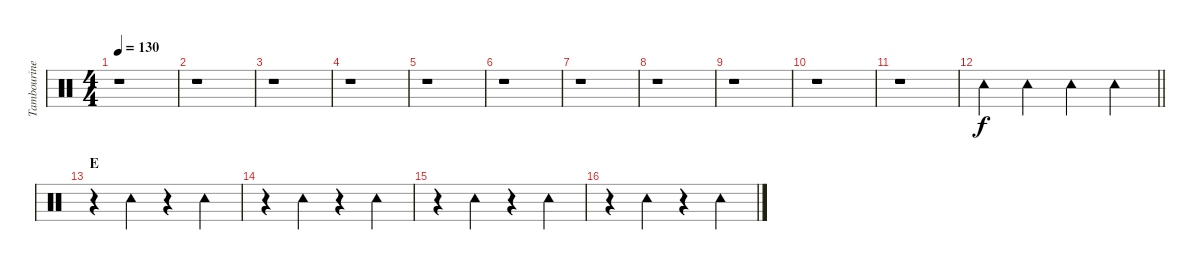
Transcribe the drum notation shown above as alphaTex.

\track ("Tambourine" "Tambourine") {instrument percussion}
\staff {score}
\articulation defaults
\ts (4 4)
\tempo 130
\clef neutral
\ks c
r.1{dy f} |
r.1 |
r.1 |
r.1 |
r.1 |
r.1 |
r.1 |
r.1 |
r.1 |
r.1 |
r.1 |
\barLineRight lightlight "Tambourine (hit)".4 "Tambourine (hit)".4 "Tambourine (hit)".4 "Tambourine (hit)".4
|
\section ("" "E")
r.4 "Tambourine (hit)".4 r.4 "Tambourine (hit)".4 |
r.4 "Tambourine (hit)".4 r.4 "Tambourine (hit)".4 |
r.4 "Tambourine (hit)".4 r.4 "Tambourine (hit)".4 |
r.4 "Tambourine (hit)".4 r.4 "Tambourine (hit)".4
